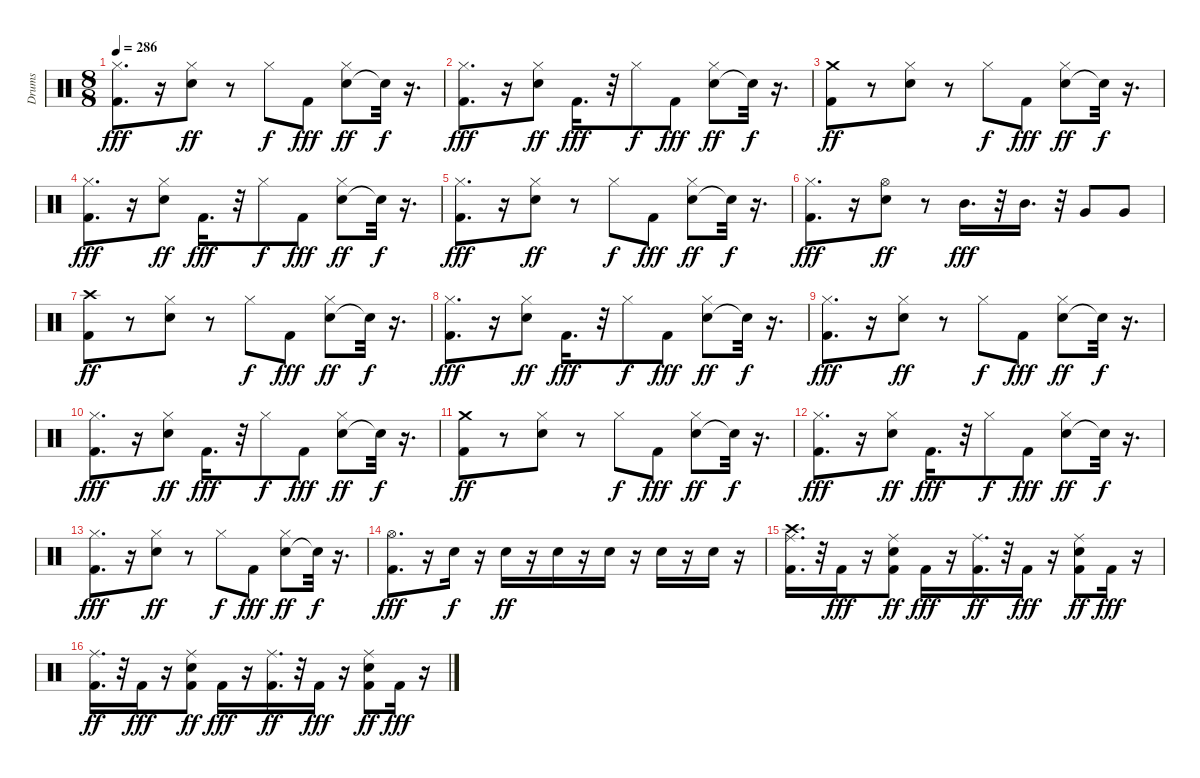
\track ("Drums" "Drums") {instrument percussion}
\staff {score}
\articulation defaults
\ts (8 8)
\tempo 286
\clef neutral
\ks c
("Kick (hit) 2" "Hi-Hat (closed)").8{d dy fff} r.16 ("Snare (hit) 2" "Hi-Hat (closed)").8{dy ff} r.8 "Hi-Hat (closed)".8{dy f} "Kick (hit) 2".8{dy fff} ("Snare (hit) 2" "Hi-Hat (closed)").8{dy ff} "Snare (hit)"{t}.32{dy f} r.16{d} |
("Kick (hit) 2" "Hi-Hat (closed)").8{d dy fff} r.16 ("Snare (hit) 2" "Hi-Hat (closed)").8{dy ff} "Kick (hit) 2".16{d dy fff} r.32 "Hi-Hat (closed)".8{dy f} "Kick (hit) 2".8{dy fff} ("Snare (hit) 2" "Hi-Hat (closed)").8{dy ff} "Snare (hit)"{t}.32{dy f} r.16{d} |
("Kick (hit) 2" "Crash medium (hit)").8{dy ff} r.8 ("Snare (hit) 2" "Hi-Hat (closed)").8 r.8 "Hi-Hat (closed)".8{dy f} "Kick (hit) 2".8{dy fff} ("Snare (hit) 2" "Hi-Hat (closed)").8{dy ff} "Snare (hit)"{t}.32{dy f} r.16{d} |
("Kick (hit) 2" "Hi-Hat (closed)").8{d dy fff} r.16 ("Snare (hit) 2" "Hi-Hat (closed)").8{dy ff} "Kick (hit) 2".16{d dy fff} r.32 "Hi-Hat (closed)".8{dy f} "Kick (hit) 2".8{dy fff} ("Snare (hit) 2" "Hi-Hat (closed)").8{dy ff} "Snare (hit)"{t}.32{dy f} r.16{d} |
("Kick (hit) 2" "Hi-Hat (closed)").8{d dy fff} r.16 ("Snare (hit) 2" "Hi-Hat (closed)").8{dy ff} r.8 "Hi-Hat (closed)".8{dy f} "Kick (hit) 2".8{dy fff} ("Snare (hit) 2" "Hi-Hat (closed)").8{dy ff} "Snare (hit)"{t}.32{dy f} r.16{d} |
("Kick (hit) 2" "Hi-Hat (closed)").8{d dy fff} r.16 ("Snare (hit) 2" "Hi-Hat (open)").8{dy ff} r.8 "Mid Tom (hit)".16{d dy fff} r.32 "Mid Tom (hit)".16{d} r.32 "Very Low Tom (hit)".8 "Very Low Tom (hit)".8 |
("Kick (hit) 2" "Crash high (hit)").8{dy ff} r.8 ("Snare (hit) 2" "Hi-Hat (closed)").8 r.8 "Hi-Hat (closed)".8{dy f} "Kick (hit) 2".8{dy fff} ("Snare (hit) 2" "Hi-Hat (closed)").8{dy ff} "Snare (hit)"{t}.32{dy f} r.16{d} |
("Kick (hit) 2" "Hi-Hat (closed)").8{d dy fff} r.16 ("Snare (hit) 2" "Hi-Hat (closed)").8{dy ff} "Kick (hit) 2".16{d dy fff} r.32 "Hi-Hat (closed)".8{dy f} "Kick (hit) 2".8{dy fff} ("Snare (hit) 2" "Hi-Hat (closed)").8{dy ff} "Snare (hit)"{t}.32{dy f} r.16{d} |
("Kick (hit) 2" "Hi-Hat (closed)").8{d dy fff} r.16 ("Snare (hit) 2" "Hi-Hat (closed)").8{dy ff} r.8 "Hi-Hat (closed)".8{dy f} "Kick (hit) 2".8{dy fff} ("Snare (hit) 2" "Hi-Hat (closed)").8{dy ff} "Snare (hit)"{t}.32{dy f} r.16{d} |
("Kick (hit) 2" "Hi-Hat (closed)").8{d dy fff} r.16 ("Snare (hit) 2" "Hi-Hat (closed)").8{dy ff} "Kick (hit) 2".16{d dy fff} r.32 "Hi-Hat (closed)".8{dy f} "Kick (hit) 2".8{dy fff} ("Snare (hit) 2" "Hi-Hat (closed)").8{dy ff} "Snare (hit)"{t}.32{dy f} r.16{d} |
("Kick (hit) 2" "Crash medium (hit)").8{dy ff} r.8 ("Snare (hit) 2" "Hi-Hat (closed)").8 r.8 "Hi-Hat (closed)".8{dy f} "Kick (hit) 2".8{dy fff} ("Snare (hit) 2" "Hi-Hat (closed)").8{dy ff} "Snare (hit)"{t}.32{dy f} r.16{d} |
("Kick (hit) 2" "Hi-Hat (closed)").8{d dy fff} r.16 ("Snare (hit) 2" "Hi-Hat (closed)").8{dy ff} "Kick (hit) 2".16{d dy fff} r.32 "Hi-Hat (closed)".8{dy f} "Kick (hit) 2".8{dy fff} ("Snare (hit) 2" "Hi-Hat (closed)").8{dy ff} "Snare (hit)"{t}.32{dy f} r.16{d} |
("Kick (hit) 2" "Hi-Hat (closed)").8{d dy fff} r.16 ("Snare (hit) 2" "Hi-Hat (closed)").8{dy ff} r.8 "Hi-Hat (closed)".8{dy f} "Kick (hit) 2".8{dy fff} ("Snare (hit) 2" "Hi-Hat (closed)").8{dy ff} "Snare (hit)"{t}.32{dy f} r.16{d} |
("Kick (hit) 2" "Hi-Hat (open)").8{d dy fff} r.16 "Snare (hit) 2".16{dy f} r.16 "Snare (hit) 2".16{dy ff} r.16 "Snare (hit) 2".16 r.16 "Snare (hit) 2".16 r.16 "Snare (hit) 2".16 r.16 "Snare (hit) 2".16 r.16 |
("Kick (hit) 2" "Ride (middle)" "Crash high (hit)").16{d} r.32 "Kick (hit) 2".16{dy fff} r.16 ("Kick (hit) 2" "Snare (hit) 2" "Ride (middle)").8{dy ff} "Kick (hit) 2".16{dy fff} r.16 ("Kick (hit) 2" "Ride (middle)").16{d dy ff} r.32 "Kick (hit) 2".16{dy fff} r.16 ("Kick (hit) 2" "Snare (hit) 2" "Ride (middle)").8{dy ff} "Kick (hit) 2".16{dy fff} r.16 |
("Kick (hit) 2" "Ride (middle)").16{d dy ff} r.32 "Kick (hit) 2".16{dy fff} r.16 ("Kick (hit) 2" "Snare (hit) 2" "Ride (middle)").8{dy ff} "Kick (hit) 2".16{dy fff} r.16 ("Kick (hit) 2" "Ride (middle)").16{d dy ff} r.32 "Kick (hit) 2".16{dy fff} r.16 ("Kick (hit) 2" "Snare (hit) 2" "Ride (middle)").8{dy ff} "Kick (hit) 2".16{dy fff} r.16
